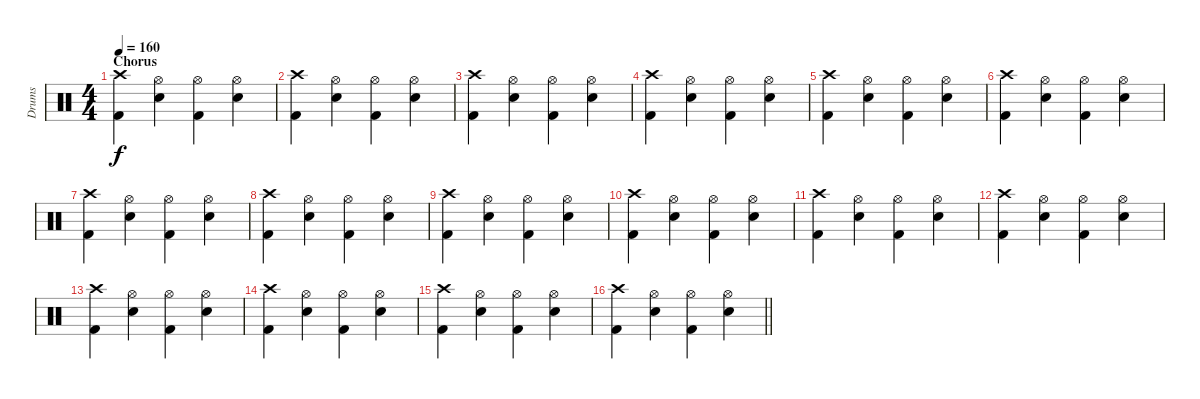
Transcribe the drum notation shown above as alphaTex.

\track ("Drums" "Drums") {instrument percussion}
\staff {score}
\articulation defaults
\ts (4 4)
\section ("" "Chorus")
\tempo 160
\clef neutral
\ks c
("Crash high (hit)" "Kick (hit) 2").4{dy f} ("Hi-Hat (open)" "Electric Snare (hit)").4 ("Hi-Hat (open)" "Kick (hit) 2").4 ("Hi-Hat (open)" "Electric Snare (hit)").4 |
("Crash high (hit)" "Kick (hit) 2").4 ("Hi-Hat (open)" "Electric Snare (hit)").4 ("Hi-Hat (open)" "Kick (hit) 2").4 ("Hi-Hat (open)" "Electric Snare (hit)").4 |
("Crash high (hit)" "Kick (hit) 2").4 ("Hi-Hat (open)" "Electric Snare (hit)").4 ("Hi-Hat (open)" "Kick (hit) 2").4 ("Hi-Hat (open)" "Electric Snare (hit)").4 |
("Crash high (hit)" "Kick (hit) 2").4 ("Hi-Hat (open)" "Electric Snare (hit)").4 ("Hi-Hat (open)" "Kick (hit) 2").4 ("Hi-Hat (open)" "Electric Snare (hit)").4 |
("Crash high (hit)" "Kick (hit) 2").4 ("Hi-Hat (open)" "Electric Snare (hit)").4 ("Hi-Hat (open)" "Kick (hit) 2").4 ("Hi-Hat (open)" "Electric Snare (hit)").4 |
("Crash high (hit)" "Kick (hit) 2").4 ("Hi-Hat (open)" "Electric Snare (hit)").4 ("Hi-Hat (open)" "Kick (hit) 2").4 ("Hi-Hat (open)" "Electric Snare (hit)").4 |
("Crash high (hit)" "Kick (hit) 2").4 ("Hi-Hat (open)" "Electric Snare (hit)").4 ("Hi-Hat (open)" "Kick (hit) 2").4 ("Hi-Hat (open)" "Electric Snare (hit)").4 |
("Crash high (hit)" "Kick (hit) 2").4 ("Hi-Hat (open)" "Electric Snare (hit)").4 ("Hi-Hat (open)" "Kick (hit) 2").4 ("Hi-Hat (open)" "Electric Snare (hit)").4 |
("Crash high (hit)" "Kick (hit) 2").4 ("Hi-Hat (open)" "Electric Snare (hit)").4 ("Hi-Hat (open)" "Kick (hit) 2").4 ("Hi-Hat (open)" "Electric Snare (hit)").4 |
("Crash high (hit)" "Kick (hit) 2").4 ("Hi-Hat (open)" "Electric Snare (hit)").4 ("Hi-Hat (open)" "Kick (hit) 2").4 ("Hi-Hat (open)" "Electric Snare (hit)").4 |
("Crash high (hit)" "Kick (hit) 2").4 ("Hi-Hat (open)" "Electric Snare (hit)").4 ("Hi-Hat (open)" "Kick (hit) 2").4 ("Hi-Hat (open)" "Electric Snare (hit)").4 |
("Crash high (hit)" "Kick (hit) 2").4 ("Hi-Hat (open)" "Electric Snare (hit)").4 ("Hi-Hat (open)" "Kick (hit) 2").4 ("Hi-Hat (open)" "Electric Snare (hit)").4 |
("Crash high (hit)" "Kick (hit) 2").4 ("Hi-Hat (open)" "Electric Snare (hit)").4 ("Hi-Hat (open)" "Kick (hit) 2").4 ("Hi-Hat (open)" "Electric Snare (hit)").4 |
("Crash high (hit)" "Kick (hit) 2").4 ("Hi-Hat (open)" "Electric Snare (hit)").4 ("Hi-Hat (open)" "Kick (hit) 2").4 ("Hi-Hat (open)" "Electric Snare (hit)").4 |
("Crash high (hit)" "Kick (hit) 2").4 ("Hi-Hat (open)" "Electric Snare (hit)").4 ("Hi-Hat (open)" "Kick (hit) 2").4 ("Hi-Hat (open)" "Electric Snare (hit)").4 |
\barLineRight lightlight
("Crash high (hit)" "Kick (hit) 2").4 ("Hi-Hat (open)" "Electric Snare (hit)").4 ("Hi-Hat (open)" "Kick (hit) 2").4 ("Hi-Hat (open)" "Electric Snare (hit)").4
